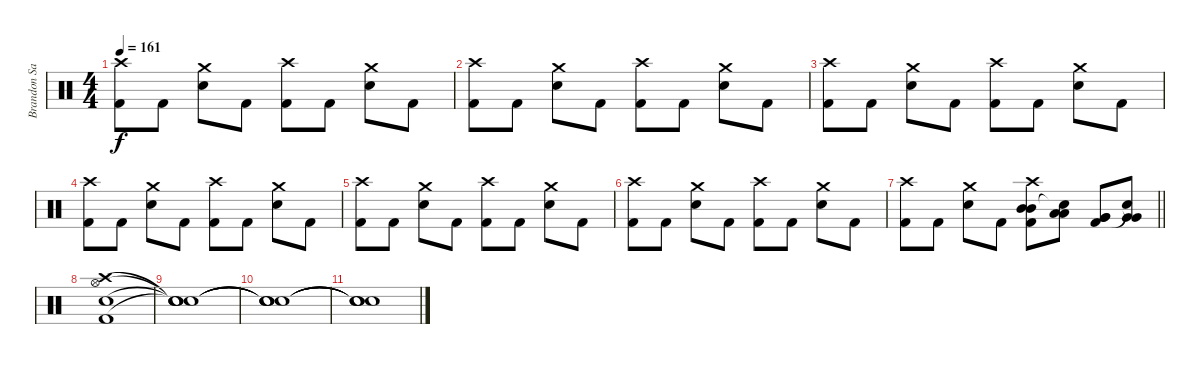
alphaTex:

\track ("Brandon Saller" "Brandon Sa") {instrument percussion}
\staff {score}
\articulation defaults
\ts (4 4)
\tempo 161
\clef neutral
\ks c
("Crash high (hit)" "Kick (hit) 2").8{dy f} "Kick (hit) 2".8 ("Crash medium (hit)" "Electric Snare (hit)").8 "Kick (hit) 2".8 ("Crash high (hit)" "Kick (hit) 2").8 "Kick (hit) 2".8 ("Crash medium (hit)" "Electric Snare (hit)").8 "Kick (hit) 2".8 |
("Crash high (hit)" "Kick (hit) 2").8 "Kick (hit) 2".8 ("Crash medium (hit)" "Electric Snare (hit)").8 "Kick (hit) 2".8 ("Crash high (hit)" "Kick (hit) 2").8 "Kick (hit) 2".8 ("Crash medium (hit)" "Electric Snare (hit)").8 "Kick (hit) 2".8 |
("Crash high (hit)" "Kick (hit) 2").8 "Kick (hit) 2".8 ("Crash medium (hit)" "Electric Snare (hit)").8 "Kick (hit) 2".8 ("Crash high (hit)" "Kick (hit) 2").8 "Kick (hit) 2".8 ("Crash medium (hit)" "Electric Snare (hit)").8 "Kick (hit) 2".8 |
("Crash high (hit)" "Kick (hit) 2").8 "Kick (hit) 2".8 ("Crash medium (hit)" "Electric Snare (hit)").8 "Kick (hit) 2".8 ("Crash high (hit)" "Kick (hit) 2").8 "Kick (hit) 2".8 ("Crash medium (hit)" "Electric Snare (hit)").8 "Kick (hit) 2".8 |
("Crash high (hit)" "Kick (hit) 2").8 "Kick (hit) 2".8 ("Crash medium (hit)" "Electric Snare (hit)").8 "Kick (hit) 2".8 ("Crash high (hit)" "Kick (hit) 2").8 "Kick (hit) 2".8 ("Crash medium (hit)" "Electric Snare (hit)").8 "Kick (hit) 2".8 |
("Crash high (hit)" "Kick (hit) 2").8 "Kick (hit) 2".8 ("Crash medium (hit)" "Electric Snare (hit)").8 "Kick (hit) 2".8 ("Crash high (hit)" "Kick (hit) 2").8 "Kick (hit) 2".8 ("Crash medium (hit)" "Electric Snare (hit)").8 "Kick (hit) 2".8 |
\barLineRight lightlight
("Crash high (hit)" "Kick (hit) 2").8 "Kick (hit) 2".8 ("Crash medium (hit)" "Electric Snare (hit)").8 "Kick (hit) 2".8 ("Crash high (hit)" "Mid Tom (hit)" "Mid Tom (hit)" "Kick (hit) 2").8 ("Low Tom (hit)" "Low Tom (hit)" "Snare (hit)"{t}).8 ("Very Low Tom (hit)" "Very Low Tom (hit)" "Kick (hit) 2").8 ("Very Low Tom (hit)" "Very Low Tom (hit)" "Snare (hit)"{t}).8 |
("Kick (hit) 2" "Snare (hit) 2" "Hi-Hat (open)" "Crash high (hit)").1 |
("Snare (hit)"{t} "Snare (hit)"{t} "Snare (hit)"{t} "Snare (hit)"{t}).1 |
("Snare (hit)"{t} "Snare (hit)"{t} "Snare (hit)"{t} "Snare (hit)"{t}).1 |
("Snare (hit)"{t} "Snare (hit)"{t} "Snare (hit)"{t} "Snare (hit)"{t}).1
